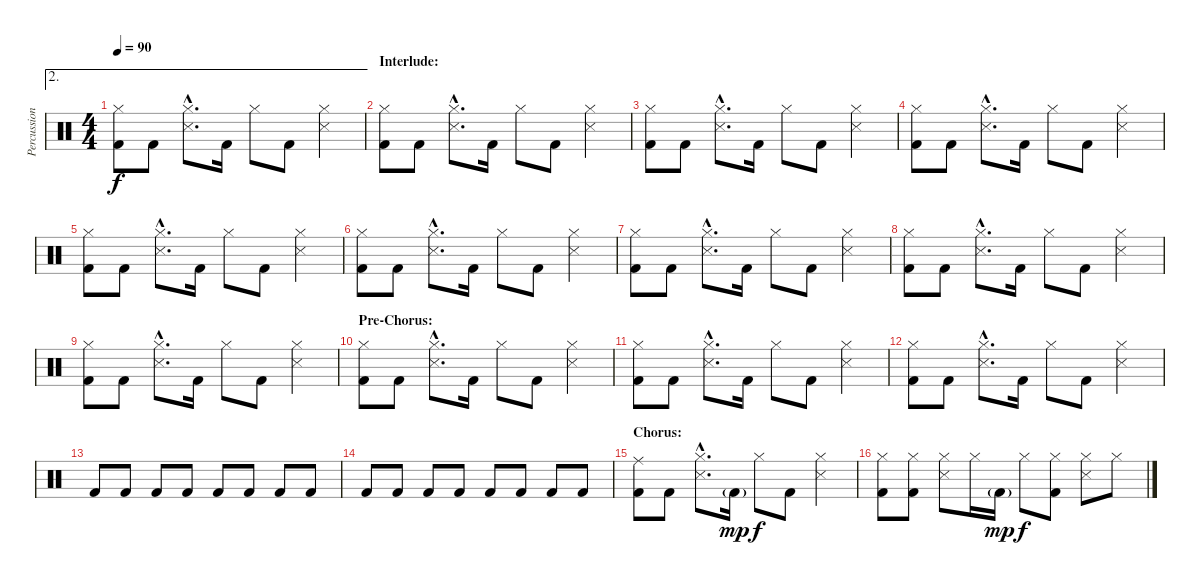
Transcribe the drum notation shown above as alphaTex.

\track ("Percussion" "Percussion") {instrument percussion}
\staff {score}
\articulation defaults
\ae 2
\ts (4 4)
\tempo 90
\clef neutral
\ks c
("Hi-Hat (closed)" "Kick (hit) 2").8{dy f} "Kick (hit) 2".8 ("Hi-Hat (closed)"{hac} "Snare (side stick) 3"{hac}).8{d} "Kick (hit) 2".16 "Hi-Hat (closed)".8 "Kick (hit) 2".8 ("Hi-Hat (closed)" "Snare (side stick) 3").4 |
\section ("" "Interlude:")
("Hi-Hat (closed)" "Kick (hit) 2").8 "Kick (hit) 2".8 ("Hi-Hat (closed)"{hac} "Snare (side stick) 3"{hac}).8{d} "Kick (hit) 2".16 "Hi-Hat (closed)".8 "Kick (hit) 2".8 ("Hi-Hat (closed)" "Snare (side stick) 3").4 |
("Hi-Hat (closed)" "Kick (hit) 2").8 "Kick (hit) 2".8 ("Hi-Hat (closed)"{hac} "Snare (side stick) 3"{hac}).8{d} "Kick (hit) 2".16 "Hi-Hat (closed)".8 "Kick (hit) 2".8 ("Hi-Hat (closed)" "Snare (side stick) 3").4 |
("Hi-Hat (closed)" "Kick (hit) 2").8 "Kick (hit) 2".8 ("Hi-Hat (closed)"{hac} "Snare (side stick) 3"{hac}).8{d} "Kick (hit) 2".16 "Hi-Hat (closed)".8 "Kick (hit) 2".8 ("Hi-Hat (closed)" "Snare (side stick) 3").4 |
("Hi-Hat (closed)" "Kick (hit) 2").8 "Kick (hit) 2".8 ("Hi-Hat (closed)"{hac} "Snare (side stick) 3"{hac}).8{d} "Kick (hit) 2".16 "Hi-Hat (closed)".8 "Kick (hit) 2".8 ("Hi-Hat (closed)" "Snare (side stick) 3").4 |
("Hi-Hat (closed)" "Kick (hit) 2").8 "Kick (hit) 2".8 ("Hi-Hat (closed)"{hac} "Snare (side stick) 3"{hac}).8{d} "Kick (hit) 2".16 "Hi-Hat (closed)".8 "Kick (hit) 2".8 ("Hi-Hat (closed)" "Snare (side stick) 3").4 |
("Hi-Hat (closed)" "Kick (hit) 2").8 "Kick (hit) 2".8 ("Hi-Hat (closed)"{hac} "Snare (side stick) 3"{hac}).8{d} "Kick (hit) 2".16 "Hi-Hat (closed)".8 "Kick (hit) 2".8 ("Hi-Hat (closed)" "Snare (side stick) 3").4 |
("Hi-Hat (closed)" "Kick (hit) 2").8 "Kick (hit) 2".8 ("Hi-Hat (closed)"{hac} "Snare (side stick) 3"{hac}).8{d} "Kick (hit) 2".16 "Hi-Hat (closed)".8 "Kick (hit) 2".8 ("Hi-Hat (closed)" "Snare (side stick) 3").4 |
("Hi-Hat (closed)" "Kick (hit) 2").8 "Kick (hit) 2".8 ("Hi-Hat (closed)"{hac} "Snare (side stick) 3"{hac}).8{d} "Kick (hit) 2".16 "Hi-Hat (closed)".8 "Kick (hit) 2".8 ("Hi-Hat (closed)" "Snare (side stick) 3").4 |
\section ("" "Pre-Chorus:")
("Hi-Hat (closed)" "Kick (hit) 2").8 "Kick (hit) 2".8 ("Hi-Hat (closed)"{hac} "Snare (side stick) 3"{hac}).8{d} "Kick (hit) 2".16 "Hi-Hat (closed)".8 "Kick (hit) 2".8 ("Hi-Hat (closed)" "Snare (side stick) 3").4 |
("Hi-Hat (closed)" "Kick (hit) 2").8 "Kick (hit) 2".8 ("Hi-Hat (closed)"{hac} "Snare (side stick) 3"{hac}).8{d} "Kick (hit) 2".16 "Hi-Hat (closed)".8 "Kick (hit) 2".8 ("Hi-Hat (closed)" "Snare (side stick) 3").4 |
("Hi-Hat (closed)" "Kick (hit) 2").8 "Kick (hit) 2".8 ("Hi-Hat (closed)"{hac} "Snare (side stick) 3"{hac}).8{d} "Kick (hit) 2".16 "Hi-Hat (closed)".8 "Kick (hit) 2".8 ("Hi-Hat (closed)" "Snare (side stick) 3").4 |
"Kick (hit) 2".8 "Kick (hit) 2".8 "Kick (hit) 2".8 "Kick (hit) 2".8 "Kick (hit) 2".8 "Kick (hit) 2".8 "Kick (hit) 2".8 "Kick (hit) 2".8 |
"Kick (hit) 2".8 "Kick (hit) 2".8 "Kick (hit) 2".8 "Kick (hit) 2".8 "Kick (hit) 2".8 "Kick (hit) 2".8 "Kick (hit) 2".8 "Kick (hit) 2".8 |
\section ("" "Chorus:")
("Ride (middle)" "Kick (hit) 2").8 "Kick (hit) 2".8 ("Hi-Hat (closed)"{hac} "Snare (side stick) 3"{hac}).8{d} "Kick (hit) 2"{g}.16{dy mp} "Hi-Hat (closed)".8{dy f} "Kick (hit) 2".8 ("Hi-Hat (closed)" "Snare (side stick) 3").4 |
("Hi-Hat (closed)" "Kick (hit) 2").8 ("Hi-Hat (closed)" "Kick (hit) 2").8 ("Hi-Hat (closed)" "Snare (side stick) 3").8 "Hi-Hat (closed)".16 "Kick (hit) 2"{g}.16{dy mp} "Hi-Hat (closed)".8{dy f} ("Hi-Hat (closed)" "Kick (hit) 2").8 ("Hi-Hat (closed)" "Snare (side stick) 3").8 "Hi-Hat (closed)".8
